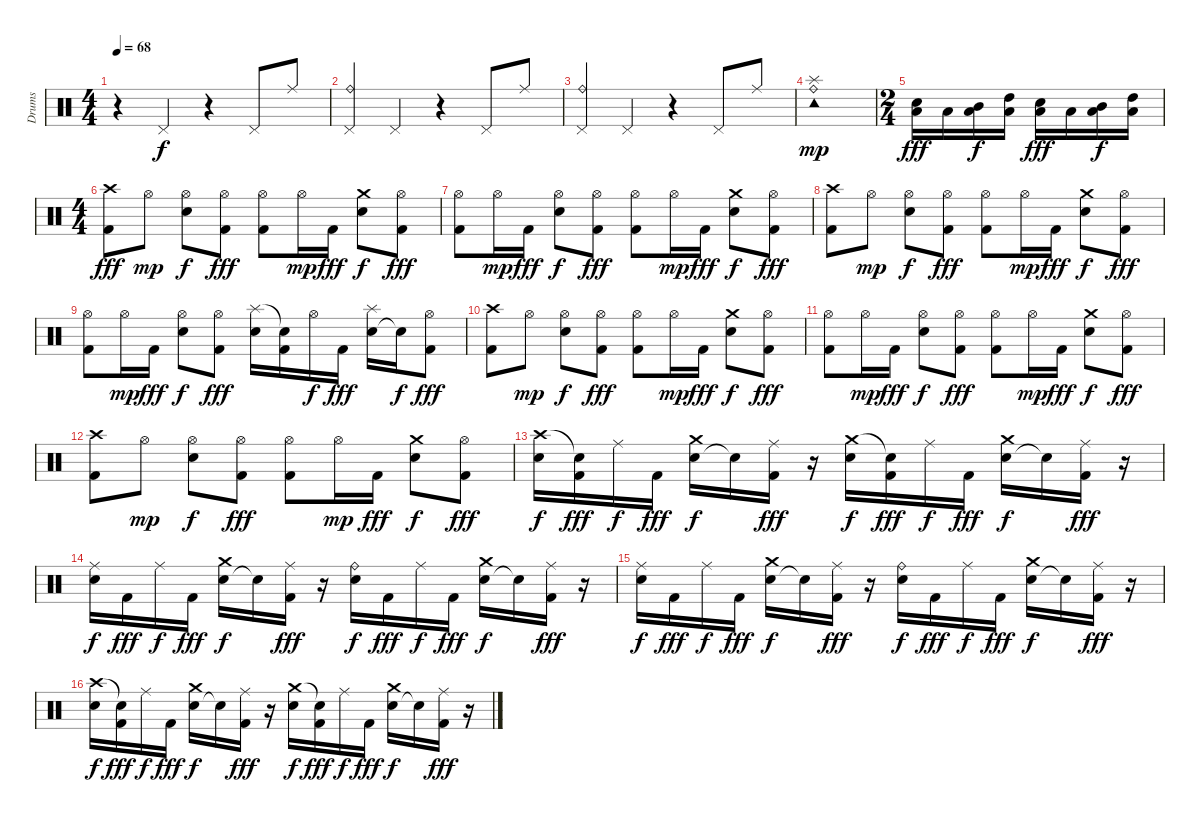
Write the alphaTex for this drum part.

\track ("Drums" "Drums") {instrument percussion}
\staff {score}
\articulation defaults
\ts (4 4)
\tempo 68
\clef neutral
\ks c
r.4{dy f} "Pedal Hi-Hat (hit)".4 r.4 "Pedal Hi-Hat (hit)".8 "Ride (middle)".8 |
("Pedal Hi-Hat (hit)" "Ride (bell)").4 "Pedal Hi-Hat (hit)".4 r.4 "Pedal Hi-Hat (hit)".8 "Ride (middle)".8 |
("Pedal Hi-Hat (hit)" "Ride (bell)").4 "Pedal Hi-Hat (hit)".4 r.4 "Pedal Hi-Hat (hit)".8 "Ride (middle)".8 |
("Ride (bell)" "Tambourine (hit)" "Splash (hit)").1{dy mp} |
\ts (2 4)
("Snare (hit) 2" "Low Tom (hit)").16{dy fff} "Low Tom (hit)".16 ("Mid Tom (hit)" "Low Tom (hit)").16{dy f} ("High Tom (hit)" "Low Tom (hit)").16 ("Snare (hit) 2" "Low Tom (hit)").16{dy fff} "Low Tom (hit)".16 ("Mid Tom (hit)" "Low Tom (hit)").16{dy f} ("High Tom (hit)" "Low Tom (hit)").16 |
\ts (4 4)
("Kick (hit) 2" "Crash high (hit)").8{dy fff} "Hi-Hat (open)".8{dy mp} ("Hi-Hat (open)" "Snare (hit) 2").8{dy f} ("Hi-Hat (open)" "Kick (hit) 2").8{dy fff} ("Hi-Hat (open)" "Kick (hit) 2").8 "Hi-Hat (open)".16{dy mp} "Kick (hit) 2".16{dy fff} ("Snare (hit) 2" "Crash medium (hit)").8{dy f} ("Hi-Hat (open)" "Kick (hit) 2").8{dy fff} |
("Hi-Hat (open)" "Kick (hit) 2").8 "Hi-Hat (open)".16{dy mp} "Kick (hit) 2".16{dy fff} ("Hi-Hat (open)" "Snare (hit) 2").8{dy f} ("Hi-Hat (open)" "Kick (hit) 2").8{dy fff} ("Hi-Hat (open)" "Kick (hit) 2").8 "Hi-Hat (open)".16{dy mp} "Kick (hit) 2".16{dy fff} ("Snare (hit) 2" "Crash medium (hit)").8{dy f} ("Hi-Hat (open)" "Kick (hit) 2").8{dy fff} |
("Kick (hit) 2" "Crash high (hit)").8 "Hi-Hat (open)".8{dy mp} ("Hi-Hat (open)" "Snare (hit) 2").8{dy f} ("Hi-Hat (open)" "Kick (hit) 2").8{dy fff} ("Hi-Hat (open)" "Kick (hit) 2").8 "Hi-Hat (open)".16{dy mp} "Kick (hit) 2".16{dy fff} ("Snare (hit) 2" "Crash medium (hit)").8{dy f} ("Hi-Hat (open)" "Kick (hit) 2").8{dy fff} |
("Hi-Hat (open)" "Kick (hit) 2").8 "Hi-Hat (open)".16{dy mp} "Kick (hit) 2".16{dy fff} ("Hi-Hat (open)" "Snare (hit) 2").8{dy f} ("Hi-Hat (open)" "Kick (hit) 2").8{dy fff} ("Snare (hit) 2" "Splash (hit)").16 ("Kick (hit) 2" "Snare (hit)"{t}).16 "Hi-Hat (open)".16{dy f} "Kick (hit) 2".16{dy fff} ("Snare (hit) 2" "Splash (hit)").16 "Snare (hit)"{t}.16{dy f} ("Hi-Hat (open)" "Kick (hit) 2").8{dy fff} |
("Kick (hit) 2" "Crash high (hit)").8 "Hi-Hat (open)".8{dy mp} ("Hi-Hat (open)" "Snare (hit) 2").8{dy f} ("Hi-Hat (open)" "Kick (hit) 2").8{dy fff} ("Hi-Hat (open)" "Kick (hit) 2").8 "Hi-Hat (open)".16{dy mp} "Kick (hit) 2".16{dy fff} ("Snare (hit) 2" "Crash medium (hit)").8{dy f} ("Hi-Hat (open)" "Kick (hit) 2").8{dy fff} |
("Hi-Hat (open)" "Kick (hit) 2").8 "Hi-Hat (open)".16{dy mp} "Kick (hit) 2".16{dy fff} ("Hi-Hat (open)" "Snare (hit) 2").8{dy f} ("Hi-Hat (open)" "Kick (hit) 2").8{dy fff} ("Hi-Hat (open)" "Kick (hit) 2").8 "Hi-Hat (open)".16{dy mp} "Kick (hit) 2".16{dy fff} ("Snare (hit) 2" "Crash medium (hit)").8{dy f} ("Hi-Hat (open)" "Kick (hit) 2").8{dy fff} |
("Kick (hit) 2" "Crash high (hit)").8 "Hi-Hat (open)".8{dy mp} ("Hi-Hat (open)" "Snare (hit) 2").8{dy f} ("Hi-Hat (open)" "Kick (hit) 2").8{dy fff} ("Hi-Hat (open)" "Kick (hit) 2").8 "Hi-Hat (open)".16{dy mp} "Kick (hit) 2".16{dy fff} ("Snare (hit) 2" "Crash medium (hit)").8{dy f} ("Hi-Hat (open)" "Kick (hit) 2").8{dy fff} |
("Snare (hit) 2" "Crash high (hit)").16{dy f} ("Kick (hit) 2" "Snare (hit)"{t}).16{dy fff} "Ride (middle)".16{dy f} "Kick (hit) 2".16{dy fff} ("Snare (hit) 2" "Crash medium (hit)").16{dy f} "Snare (hit)"{t}.16 ("Ride (middle)" "Kick (hit) 2").16{dy fff} r.16 ("Snare (hit) 2" "Crash medium (hit)").16{dy f} ("Kick (hit) 2" "Snare (hit)"{t}).16{dy fff} "Ride (middle)".16{dy f} "Kick (hit) 2".16{dy fff} ("Snare (hit) 2" "Crash medium (hit)").16{dy f} "Snare (hit)"{t}.16 ("Ride (middle)" "Kick (hit) 2").16{dy fff} r.16 |
("Ride (middle)" "Snare (hit) 2").16{dy f} "Kick (hit) 2".16{dy fff} "Ride (middle)".16{dy f} "Kick (hit) 2".16{dy fff} ("Snare (hit) 2" "Crash medium (hit)").16{dy f} "Snare (hit)"{t}.16 ("Ride (middle)" "Kick (hit) 2").16{dy fff} r.16 ("Ride (bell)" "Snare (hit) 2").16{dy f} "Kick (hit) 2".16{dy fff} "Ride (middle)".16{dy f} "Kick (hit) 2".16{dy fff} ("Snare (hit) 2" "Crash medium (hit)").16{dy f} "Snare (hit)"{t}.16 ("Ride (middle)" "Kick (hit) 2").16{dy fff} r.16 |
("Ride (middle)" "Snare (hit) 2").16{dy f} "Kick (hit) 2".16{dy fff} "Ride (middle)".16{dy f} "Kick (hit) 2".16{dy fff} ("Snare (hit) 2" "Crash medium (hit)").16{dy f} "Snare (hit)"{t}.16 ("Ride (middle)" "Kick (hit) 2").16{dy fff} r.16 ("Ride (bell)" "Snare (hit) 2").16{dy f} "Kick (hit) 2".16{dy fff} "Ride (middle)".16{dy f} "Kick (hit) 2".16{dy fff} ("Snare (hit) 2" "Crash medium (hit)").16{dy f} "Snare (hit)"{t}.16 ("Ride (middle)" "Kick (hit) 2").16{dy fff} r.16 |
("Snare (hit) 2" "Crash high (hit)").16{dy f} ("Kick (hit) 2" "Snare (hit)"{t}).16{dy fff} "Ride (middle)".16{dy f} "Kick (hit) 2".16{dy fff} ("Snare (hit) 2" "Crash medium (hit)").16{dy f} "Snare (hit)"{t}.16 ("Ride (middle)" "Kick (hit) 2").16{dy fff} r.16 ("Snare (hit) 2" "Crash medium (hit)").16{dy f} ("Kick (hit) 2" "Snare (hit)"{t}).16{dy fff} "Ride (middle)".16{dy f} "Kick (hit) 2".16{dy fff} ("Snare (hit) 2" "Crash medium (hit)").16{dy f} "Snare (hit)"{t}.16 ("Ride (middle)" "Kick (hit) 2").16{dy fff} r.16
